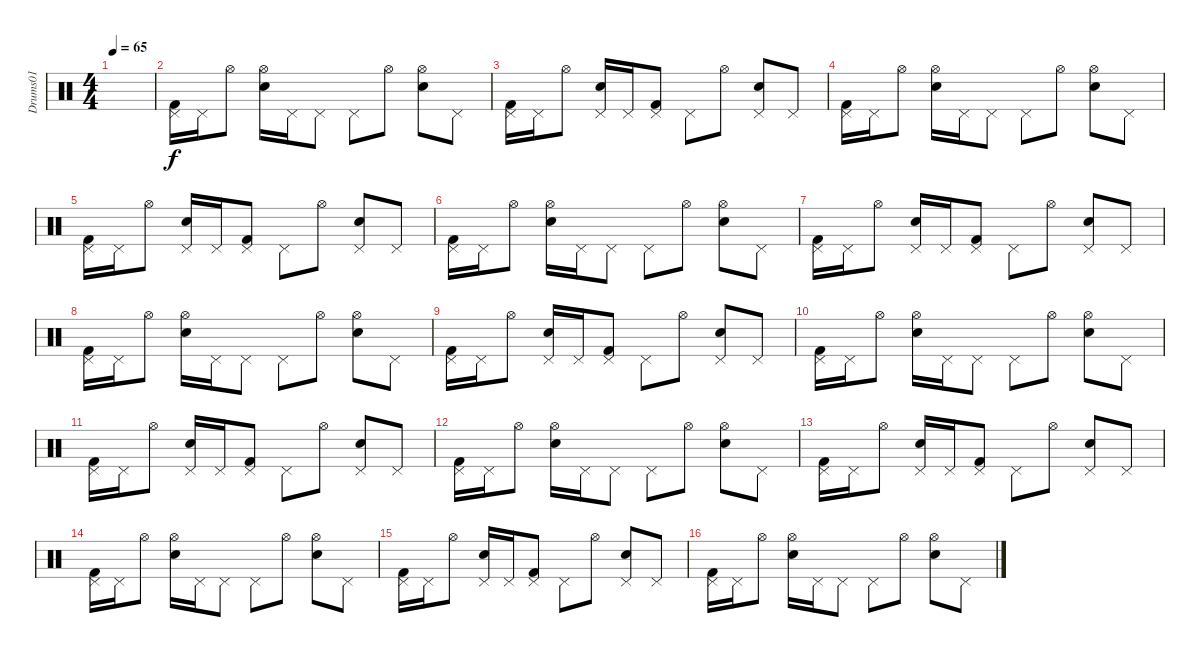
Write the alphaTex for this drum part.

\track ("Drums01" "Drums01") {instrument percussion}
\staff {score}
\articulation defaults
\ts (4 4)
\tempo 65
\clef neutral
\ks c
|
("Pedal Hi-Hat (hit)" "Kick (hit) 2").16 "Pedal Hi-Hat (hit)".16 "Hi-Hat (open)".8 ("Hi-Hat (open)" "Snare (hit) 2").16 "Pedal Hi-Hat (hit)".16 "Pedal Hi-Hat (hit)".8 "Pedal Hi-Hat (hit)".8 "Hi-Hat (open)".8 ("Hi-Hat (open)" "Snare (hit) 2").8 "Pedal Hi-Hat (hit)".8 |
("Pedal Hi-Hat (hit)" "Kick (hit) 2").16 "Pedal Hi-Hat (hit)".16 "Hi-Hat (open)".8 ("Pedal Hi-Hat (hit)" "Snare (hit) 2").16 "Pedal Hi-Hat (hit)".16 ("Pedal Hi-Hat (hit)" "Kick (hit) 2").8 "Pedal Hi-Hat (hit)".8 "Hi-Hat (open)".8 ("Pedal Hi-Hat (hit)" "Snare (hit) 2").8 "Pedal Hi-Hat (hit)".8 |
("Pedal Hi-Hat (hit)" "Kick (hit) 2").16 "Pedal Hi-Hat (hit)".16 "Hi-Hat (open)".8 ("Hi-Hat (open)" "Snare (hit) 2").16 "Pedal Hi-Hat (hit)".16 "Pedal Hi-Hat (hit)".8 "Pedal Hi-Hat (hit)".8 "Hi-Hat (open)".8 ("Hi-Hat (open)" "Snare (hit) 2").8 "Pedal Hi-Hat (hit)".8 |
("Pedal Hi-Hat (hit)" "Kick (hit) 2").16 "Pedal Hi-Hat (hit)".16 "Hi-Hat (open)".8 ("Pedal Hi-Hat (hit)" "Snare (hit) 2").16 "Pedal Hi-Hat (hit)".16 ("Pedal Hi-Hat (hit)" "Kick (hit) 2").8 "Pedal Hi-Hat (hit)".8 "Hi-Hat (open)".8 ("Pedal Hi-Hat (hit)" "Snare (hit) 2").8 "Pedal Hi-Hat (hit)".8 |
("Pedal Hi-Hat (hit)" "Kick (hit) 2").16 "Pedal Hi-Hat (hit)".16 "Hi-Hat (open)".8 ("Hi-Hat (open)" "Snare (hit) 2").16 "Pedal Hi-Hat (hit)".16 "Pedal Hi-Hat (hit)".8 "Pedal Hi-Hat (hit)".8 "Hi-Hat (open)".8 ("Hi-Hat (open)" "Snare (hit) 2").8 "Pedal Hi-Hat (hit)".8 |
("Pedal Hi-Hat (hit)" "Kick (hit) 2").16 "Pedal Hi-Hat (hit)".16 "Hi-Hat (open)".8 ("Pedal Hi-Hat (hit)" "Snare (hit) 2").16 "Pedal Hi-Hat (hit)".16 ("Pedal Hi-Hat (hit)" "Kick (hit) 2").8 "Pedal Hi-Hat (hit)".8 "Hi-Hat (open)".8 ("Pedal Hi-Hat (hit)" "Snare (hit) 2").8 "Pedal Hi-Hat (hit)".8 |
("Pedal Hi-Hat (hit)" "Kick (hit) 2").16 "Pedal Hi-Hat (hit)".16 "Hi-Hat (open)".8 ("Hi-Hat (open)" "Snare (hit) 2").16 "Pedal Hi-Hat (hit)".16 "Pedal Hi-Hat (hit)".8 "Pedal Hi-Hat (hit)".8 "Hi-Hat (open)".8 ("Hi-Hat (open)" "Snare (hit) 2").8 "Pedal Hi-Hat (hit)".8 |
("Pedal Hi-Hat (hit)" "Kick (hit) 2").16 "Pedal Hi-Hat (hit)".16 "Hi-Hat (open)".8 ("Pedal Hi-Hat (hit)" "Snare (hit) 2").16 "Pedal Hi-Hat (hit)".16 ("Pedal Hi-Hat (hit)" "Kick (hit) 2").8 "Pedal Hi-Hat (hit)".8 "Hi-Hat (open)".8 ("Pedal Hi-Hat (hit)" "Snare (hit) 2").8 "Pedal Hi-Hat (hit)".8 |
("Pedal Hi-Hat (hit)" "Kick (hit) 2").16 "Pedal Hi-Hat (hit)".16 "Hi-Hat (open)".8 ("Hi-Hat (open)" "Snare (hit) 2").16 "Pedal Hi-Hat (hit)".16 "Pedal Hi-Hat (hit)".8 "Pedal Hi-Hat (hit)".8 "Hi-Hat (open)".8 ("Hi-Hat (open)" "Snare (hit) 2").8 "Pedal Hi-Hat (hit)".8 |
("Pedal Hi-Hat (hit)" "Kick (hit) 2").16 "Pedal Hi-Hat (hit)".16 "Hi-Hat (open)".8 ("Pedal Hi-Hat (hit)" "Snare (hit) 2").16 "Pedal Hi-Hat (hit)".16 ("Pedal Hi-Hat (hit)" "Kick (hit) 2").8 "Pedal Hi-Hat (hit)".8 "Hi-Hat (open)".8 ("Pedal Hi-Hat (hit)" "Snare (hit) 2").8 "Pedal Hi-Hat (hit)".8 |
("Pedal Hi-Hat (hit)" "Kick (hit) 2").16 "Pedal Hi-Hat (hit)".16 "Hi-Hat (open)".8 ("Hi-Hat (open)" "Snare (hit) 2").16 "Pedal Hi-Hat (hit)".16 "Pedal Hi-Hat (hit)".8 "Pedal Hi-Hat (hit)".8 "Hi-Hat (open)".8 ("Hi-Hat (open)" "Snare (hit) 2").8 "Pedal Hi-Hat (hit)".8 |
("Pedal Hi-Hat (hit)" "Kick (hit) 2").16 "Pedal Hi-Hat (hit)".16 "Hi-Hat (open)".8 ("Pedal Hi-Hat (hit)" "Snare (hit) 2").16 "Pedal Hi-Hat (hit)".16 ("Pedal Hi-Hat (hit)" "Kick (hit) 2").8 "Pedal Hi-Hat (hit)".8 "Hi-Hat (open)".8 ("Pedal Hi-Hat (hit)" "Snare (hit) 2").8 "Pedal Hi-Hat (hit)".8 |
("Pedal Hi-Hat (hit)" "Kick (hit) 2").16 "Pedal Hi-Hat (hit)".16 "Hi-Hat (open)".8 ("Hi-Hat (open)" "Snare (hit) 2").16 "Pedal Hi-Hat (hit)".16 "Pedal Hi-Hat (hit)".8 "Pedal Hi-Hat (hit)".8 "Hi-Hat (open)".8 ("Hi-Hat (open)" "Snare (hit) 2").8 "Pedal Hi-Hat (hit)".8 |
("Pedal Hi-Hat (hit)" "Kick (hit) 2").16 "Pedal Hi-Hat (hit)".16 "Hi-Hat (open)".8 ("Pedal Hi-Hat (hit)" "Snare (hit) 2").16 "Pedal Hi-Hat (hit)".16 ("Pedal Hi-Hat (hit)" "Kick (hit) 2").8 "Pedal Hi-Hat (hit)".8 "Hi-Hat (open)".8 ("Pedal Hi-Hat (hit)" "Snare (hit) 2").8 "Pedal Hi-Hat (hit)".8 |
("Pedal Hi-Hat (hit)" "Kick (hit) 2").16 "Pedal Hi-Hat (hit)".16 "Hi-Hat (open)".8 ("Hi-Hat (open)" "Snare (hit) 2").16 "Pedal Hi-Hat (hit)".16 "Pedal Hi-Hat (hit)".8 "Pedal Hi-Hat (hit)".8 "Hi-Hat (open)".8 ("Hi-Hat (open)" "Snare (hit) 2").8 "Pedal Hi-Hat (hit)".8
